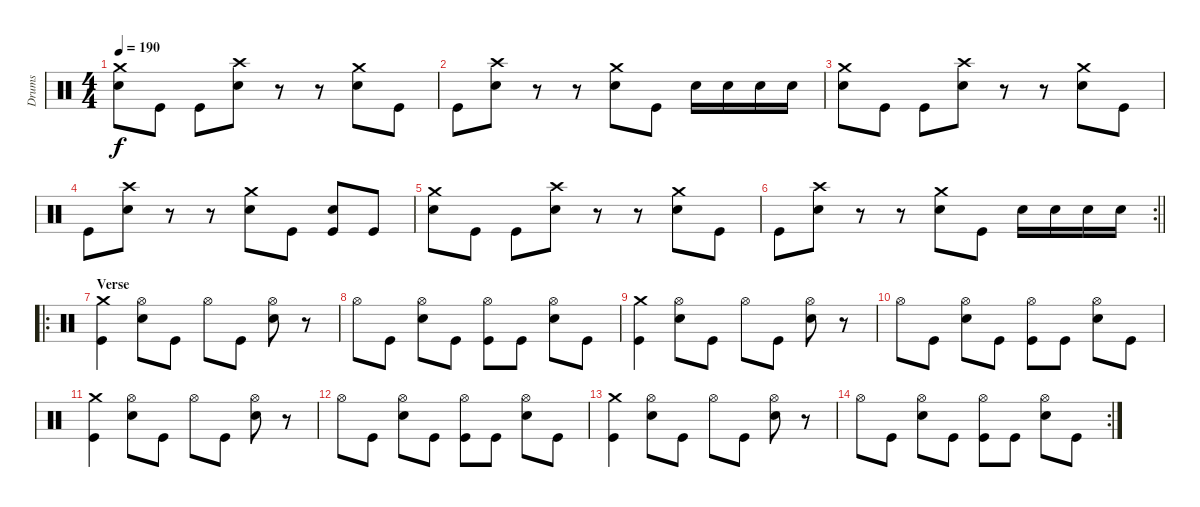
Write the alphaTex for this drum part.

\track ("Drums" "Drums") {instrument percussion}
\staff {score}
\articulation defaults
\ts (4 4)
\tempo 190
\clef neutral
\ks c
("Crash medium (hit)" "Snare (hit) 2").8{dy f} "Kick (hit)".8 "Kick (hit)".8 ("Crash high (hit)" "Snare (hit) 2").8 r.8 r.8 ("Crash medium (hit)" "Snare (hit) 2").8 "Kick (hit)".8 |
"Kick (hit)".8 ("Crash high (hit)" "Snare (hit) 2").8 r.8 r.8 ("Crash medium (hit)" "Snare (hit) 2").8 "Kick (hit)".8 "Snare (hit) 2".16 "Snare (hit) 2".16 "Snare (hit) 2".16 "Snare (hit) 2".16 |
("Crash medium (hit)" "Snare (hit) 2").8 "Kick (hit)".8 "Kick (hit)".8 ("Crash high (hit)" "Snare (hit) 2").8 r.8 r.8 ("Crash medium (hit)" "Snare (hit) 2").8 "Kick (hit)".8 |
"Kick (hit)".8 ("Crash high (hit)" "Snare (hit) 2").8 r.8 r.8 ("Crash medium (hit)" "Snare (hit) 2").8 "Kick (hit)".8 ("Snare (hit) 2" "Kick (hit)").8 "Kick (hit)".8 |
("Crash medium (hit)" "Snare (hit) 2").8 "Kick (hit)".8 "Kick (hit)".8 ("Crash high (hit)" "Snare (hit) 2").8 r.8 r.8 ("Crash medium (hit)" "Snare (hit) 2").8 "Kick (hit)".8 |
\rc 2
\barLineRight lightlight "Kick (hit)".8
("Crash high (hit)" "Snare (hit) 2").8 r.8 r.8 ("Crash medium (hit)" "Snare (hit) 2").8 "Kick (hit)".8 "Snare (hit) 2".16 "Snare (hit) 2".16 "Snare (hit) 2".16 "Snare (hit) 2".16 |
\ro
\section ("" "Verse")
("Crash medium (hit)" "Kick (hit)").4 ("Hi-Hat (open)" "Snare (hit) 2").8 "Kick (hit)".8 "Hi-Hat (open)".8 "Kick (hit)".8 ("Hi-Hat (open)" "Snare (hit) 2").8 r.8 |
"Hi-Hat (open)".8 "Kick (hit)".8 ("Hi-Hat (open)" "Snare (hit) 2").8 "Kick (hit)".8 ("Hi-Hat (open)" "Kick (hit)").8 "Kick (hit)".8 ("Hi-Hat (open)" "Snare (hit) 2").8 "Kick (hit)".8 |
("Crash medium (hit)" "Kick (hit)").4 ("Hi-Hat (open)" "Snare (hit) 2").8 "Kick (hit)".8 "Hi-Hat (open)".8 "Kick (hit)".8 ("Hi-Hat (open)" "Snare (hit) 2").8 r.8 |
"Hi-Hat (open)".8 "Kick (hit)".8 ("Hi-Hat (open)" "Snare (hit) 2").8 "Kick (hit)".8 ("Hi-Hat (open)" "Kick (hit)").8 "Kick (hit)".8 ("Hi-Hat (open)" "Snare (hit) 2").8 "Kick (hit)".8 |
("Crash medium (hit)" "Kick (hit)").4 ("Hi-Hat (open)" "Snare (hit) 2").8 "Kick (hit)".8 "Hi-Hat (open)".8 "Kick (hit)".8 ("Hi-Hat (open)" "Snare (hit) 2").8 r.8 |
"Hi-Hat (open)".8 "Kick (hit)".8 ("Hi-Hat (open)" "Snare (hit) 2").8 "Kick (hit)".8 ("Hi-Hat (open)" "Kick (hit)").8 "Kick (hit)".8 ("Hi-Hat (open)" "Snare (hit) 2").8 "Kick (hit)".8 |
("Crash medium (hit)" "Kick (hit)").4 ("Hi-Hat (open)" "Snare (hit) 2").8 "Kick (hit)".8 "Hi-Hat (open)".8 "Kick (hit)".8 ("Hi-Hat (open)" "Snare (hit) 2").8 r.8 |
\rc 2 "Hi-Hat (open)".8 "Kick (hit)".8
("Hi-Hat (open)" "Snare (hit) 2").8 "Kick (hit)".8 ("Hi-Hat (open)" "Kick (hit)").8 "Kick (hit)".8 ("Hi-Hat (open)" "Snare (hit) 2").8 "Kick (hit)".8
